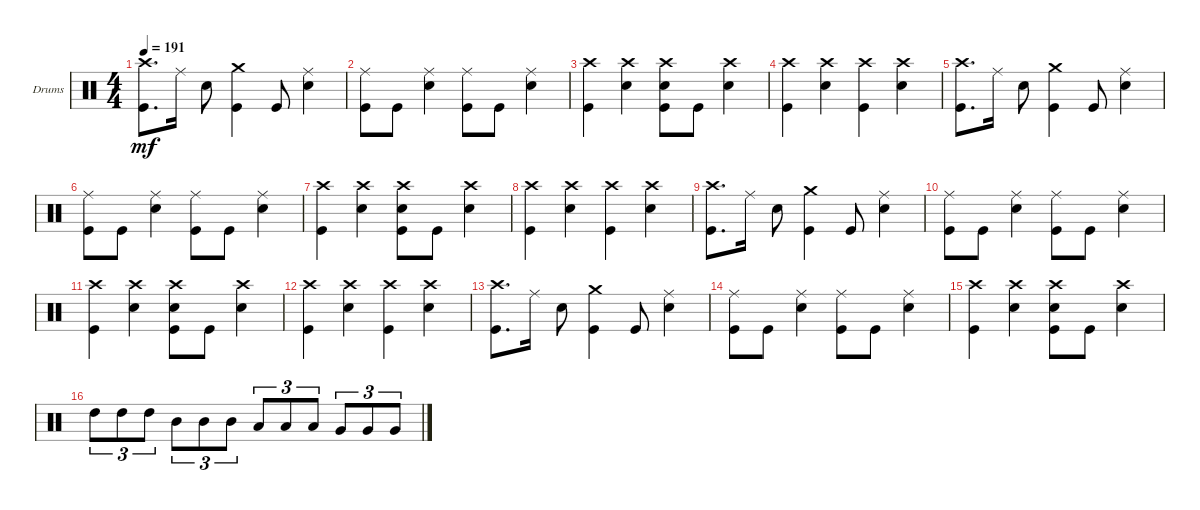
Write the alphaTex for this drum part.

\defaultSystemsLayout 4
\bracketExtendMode groupsimilarinstruments
\firstSystemTrackNameOrientation horizontal
\otherSystemsTrackNameOrientation horizontal
\track ("Drumkit" "Drums") {instrument percussion}
\staff {score}
\articulation defaults
\ts (4 4)
\tempo 191
\clef neutral
\scale
0.333333
\ks c
("Crash high (hit)" "Kick (hit)").8{d dy mf} "Ride (middle)".16 "Snare (hit) 2".8 ("Kick (hit)" "Crash medium (hit)").4 "Kick (hit)".8 ("Snare (hit) 2" "Ride (middle)").4 |
\scale
0.333333 ("Kick (hit)" "Ride (middle)").8 "Kick (hit)".8 ("Snare (hit) 2" "Ride (middle)").4 ("Kick (hit)" "Ride (middle)").8 "Kick (hit)".8 ("Snare (hit) 2" "Ride (middle)").4 |
\scale
0.333333 ("Kick (hit)" "Crash high (hit)").4 ("Snare (hit) 2" "Crash high (hit)").4 ("Kick (hit)" "Snare (hit) 2" "Crash high (hit)").8 "Kick (hit)".8 ("Snare (hit) 2" "Crash high (hit)").4 |
\scale
0.333333 ("Kick (hit)" "Crash high (hit)").4 ("Snare (hit) 2" "Crash high (hit)").4 ("Kick (hit)" "Crash high (hit)").4 ("Snare (hit) 2" "Crash high (hit)").4 |
\scale
0.333333 ("Crash high (hit)" "Kick (hit)").8{d} "Ride (middle)".16 "Snare (hit) 2".8 ("Kick (hit)" "Crash medium (hit)").4 "Kick (hit)".8 ("Snare (hit) 2" "Ride (middle)").4 |
\scale
0.333333 ("Kick (hit)" "Ride (middle)").8 "Kick (hit)".8 ("Snare (hit) 2" "Ride (middle)").4 ("Kick (hit)" "Ride (middle)").8 "Kick (hit)".8 ("Snare (hit) 2" "Ride (middle)").4 |
\scale
0.333333 ("Kick (hit)" "Crash high (hit)").4 ("Snare (hit) 2" "Crash high (hit)").4 ("Kick (hit)" "Snare (hit) 2" "Crash high (hit)").8 "Kick (hit)".8 ("Snare (hit) 2" "Crash high (hit)").4 |
\scale
0.333333 ("Kick (hit)" "Crash high (hit)").4 ("Snare (hit) 2" "Crash high (hit)").4 ("Kick (hit)" "Crash high (hit)").4 ("Snare (hit) 2" "Crash high (hit)").4 |
\scale
0.333333 ("Crash high (hit)" "Kick (hit)").8{d} "Ride (middle)".16 "Snare (hit) 2".8 ("Kick (hit)" "Crash medium (hit)").4 "Kick (hit)".8 ("Snare (hit) 2" "Ride (middle)").4 |
\scale
0.333333 ("Kick (hit)" "Ride (middle)").8 "Kick (hit)".8 ("Snare (hit) 2" "Ride (middle)").4 ("Kick (hit)" "Ride (middle)").8 "Kick (hit)".8 ("Snare (hit) 2" "Ride (middle)").4 |
\scale
0.333333 ("Kick (hit)" "Crash high (hit)").4 ("Snare (hit) 2" "Crash high (hit)").4 ("Kick (hit)" "Snare (hit) 2" "Crash high (hit)").8 "Kick (hit)".8 ("Snare (hit) 2" "Crash high (hit)").4 |
\scale
0.333333 ("Kick (hit)" "Crash high (hit)").4 ("Snare (hit) 2" "Crash high (hit)").4 ("Kick (hit)" "Crash high (hit)").4 ("Snare (hit) 2" "Crash high (hit)").4 |
\scale
0.333333 ("Crash high (hit)" "Kick (hit)").8{d} "Ride (middle)".16 "Snare (hit) 2".8 ("Kick (hit)" "Crash medium (hit)").4 "Kick (hit)".8 ("Snare (hit) 2" "Ride (middle)").4 |
\scale
0.333333 ("Kick (hit)" "Ride (middle)").8 "Kick (hit)".8 ("Snare (hit) 2" "Ride (middle)").4 ("Kick (hit)" "Ride (middle)").8 "Kick (hit)".8 ("Snare (hit) 2" "Ride (middle)").4 |
\scale
0.333333 ("Kick (hit)" "Crash high (hit)").4 ("Snare (hit) 2" "Crash high (hit)").4 ("Kick (hit)" "Snare (hit) 2" "Crash high (hit)").8 "Kick (hit)".8 ("Snare (hit) 2" "Crash high (hit)").4 |
\scale
0.333333 "High Tom (hit)".8{tu (3 2)} "High Tom (hit)".8{tu (3 2)} "High Tom (hit)".8{tu (3 2)} "Mid Tom (hit)".8{tu (3 2)} "Mid Tom (hit)".8{tu (3 2)} "Mid Tom (hit)".8{tu (3 2)} "Low Tom (hit)".8{tu (3 2)} "Low Tom (hit)".8{tu (3 2)} "Low Tom (hit)".8{tu (3 2)} "Very Low Tom (hit)".8{tu (3 2)} "Very Low Tom (hit)".8{tu (3 2)} "Very Low Tom (hit)".8{tu (3 2)}
